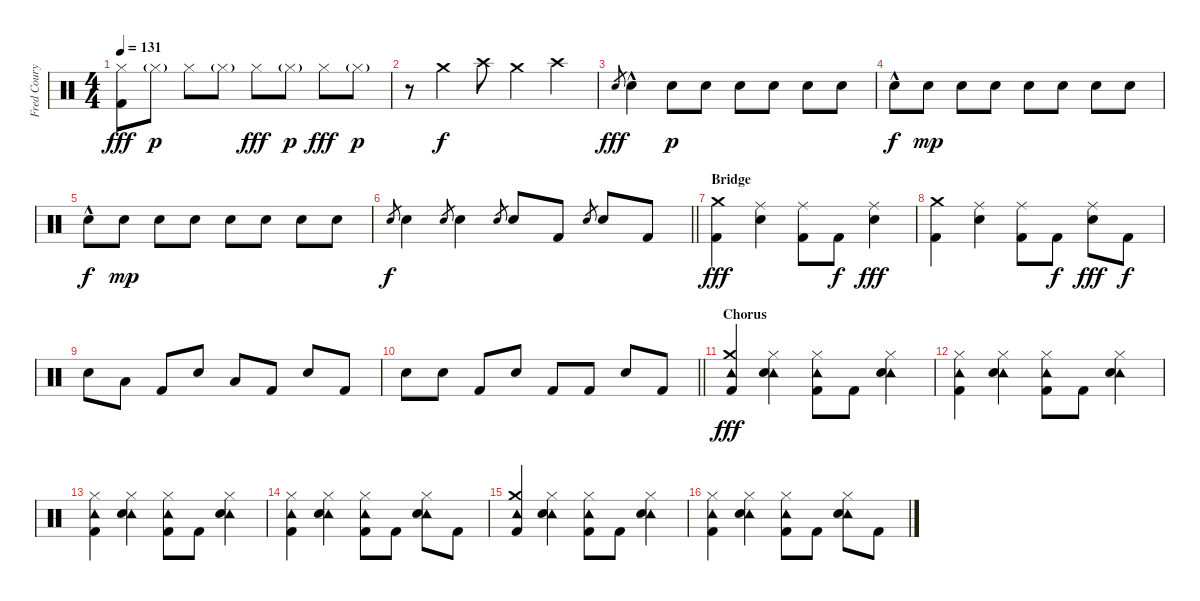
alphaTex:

\track ("Fred Coury - Drums" "Fred Coury") {instrument percussion}
\staff {score}
\articulation defaults
\ts (4 4)
\tempo 131
\clef neutral
\ks c
("Hi-Hat (closed)" "Kick (hit) 2").8{dy fff} "Hi-Hat (closed)"{g}.8{dy p} "Hi-Hat (closed)".8 "Hi-Hat (closed)"{g}.8 "Hi-Hat (closed)".8{dy fff} "Hi-Hat (closed)"{g}.8{dy p} "Hi-Hat (closed)".8{dy fff} "Hi-Hat (closed)"{g}.8{dy p} |
r.8 "Crash medium (hit)".4{dy f} "Crash high (hit)".8 "Crash medium (hit)".4 "Crash high (hit)".4 |
"Snare (hit) 2".8{gr dy fff} "Snare (hit) 2"{hac}.4 "Snare (hit) 2".8{dy p} "Snare (hit) 2".8 "Snare (hit) 2".8 "Snare (hit) 2".8 "Snare (hit) 2".8 "Snare (hit) 2".8 |
"Snare (hit) 2"{hac}.8{dy f} "Snare (hit) 2".8{dy mp} "Snare (hit) 2".8 "Snare (hit) 2".8 "Snare (hit) 2".8 "Snare (hit) 2".8 "Snare (hit) 2".8 "Snare (hit) 2".8 |
"Snare (hit) 2"{hac}.8{dy f} "Snare (hit) 2".8{dy mp} "Snare (hit) 2".8 "Snare (hit) 2".8 "Snare (hit) 2".8 "Snare (hit) 2".8 "Snare (hit) 2".8 "Snare (hit) 2".8 |
\barLineRight lightlight "Snare (hit) 2".8{gr dy f} "Snare (hit) 2".4 "Snare (hit) 2".8{gr} "Snare (hit) 2".4 "Snare (hit) 2".8{gr} "Snare (hit) 2".8 "Kick (hit) 2".8 "Snare (hit) 2".8{gr} "Snare (hit) 2".8 "Kick (hit) 2".8
|
\section ("" "Bridge")
("Crash medium (hit)" "Kick (hit) 2").4{dy fff} ("Ride (middle)" "Snare (hit) 2").4 ("Ride (middle)" "Kick (hit) 2").8 "Kick (hit) 2".8{dy f} ("Ride (middle)" "Snare (hit) 2").4{dy fff} |
("Crash medium (hit)" "Kick (hit) 2").4 ("Ride (middle)" "Snare (hit) 2").4 ("Ride (middle)" "Kick (hit) 2").8 "Kick (hit) 2".8{dy f} ("Ride (middle)" "Snare (hit) 2").8{dy fff} "Kick (hit) 2".8{dy f} |
"Snare (hit) 2".8 "Low Tom (hit)".8 "Kick (hit) 2".8 "Snare (hit) 2".8 "Low Tom (hit)".8 "Kick (hit) 2".8 "Snare (hit) 2".8 "Kick (hit) 2".8 |
\barLineRight lightlight "Snare (hit) 2".8 "Snare (hit) 2".8 "Kick (hit) 2".8 "Snare (hit) 2".8 "Kick (hit) 2".8 "Kick (hit) 2".8 "Snare (hit) 2".8 "Kick (hit) 2".8
|
\section ("" "Chorus")
("Crash medium (hit)" "Tambourine (hit)" "Kick (hit) 2").4{dy fff} ("Hi-Hat (closed)" "Tambourine (hit)" "Snare (hit) 2").4 ("Hi-Hat (closed)" "Tambourine (hit)" "Kick (hit) 2").8 "Kick (hit) 2".8 ("Hi-Hat (closed)" "Tambourine (hit)" "Snare (hit) 2").4 |
("Hi-Hat (closed)" "Tambourine (hit)" "Kick (hit) 2").4 ("Hi-Hat (closed)" "Tambourine (hit)" "Snare (hit) 2").4 ("Hi-Hat (closed)" "Tambourine (hit)" "Kick (hit) 2").8 "Kick (hit) 2".8 ("Hi-Hat (closed)" "Tambourine (hit)" "Snare (hit) 2").4 |
("Hi-Hat (closed)" "Tambourine (hit)" "Kick (hit) 2").4 ("Hi-Hat (closed)" "Tambourine (hit)" "Snare (hit) 2").4 ("Hi-Hat (closed)" "Tambourine (hit)" "Kick (hit) 2").8 "Kick (hit) 2".8 ("Hi-Hat (closed)" "Tambourine (hit)" "Snare (hit) 2").4 |
("Hi-Hat (closed)" "Tambourine (hit)" "Kick (hit) 2").4 ("Hi-Hat (closed)" "Tambourine (hit)" "Snare (hit) 2").4 ("Hi-Hat (closed)" "Tambourine (hit)" "Kick (hit) 2").8 "Kick (hit) 2".8 ("Hi-Hat (closed)" "Tambourine (hit)" "Snare (hit) 2").8 "Kick (hit) 2".8 |
("Crash medium (hit)" "Tambourine (hit)" "Kick (hit) 2").4 ("Hi-Hat (closed)" "Tambourine (hit)" "Snare (hit) 2").4 ("Hi-Hat (closed)" "Tambourine (hit)" "Kick (hit) 2").8 "Kick (hit) 2".8 ("Hi-Hat (closed)" "Tambourine (hit)" "Snare (hit) 2").4 |
("Hi-Hat (closed)" "Tambourine (hit)" "Kick (hit) 2").4 ("Hi-Hat (closed)" "Tambourine (hit)" "Snare (hit) 2").4 ("Hi-Hat (closed)" "Tambourine (hit)" "Kick (hit) 2").8 "Kick (hit) 2".8 ("Hi-Hat (closed)" "Tambourine (hit)" "Snare (hit) 2").8 "Kick (hit) 2".8
